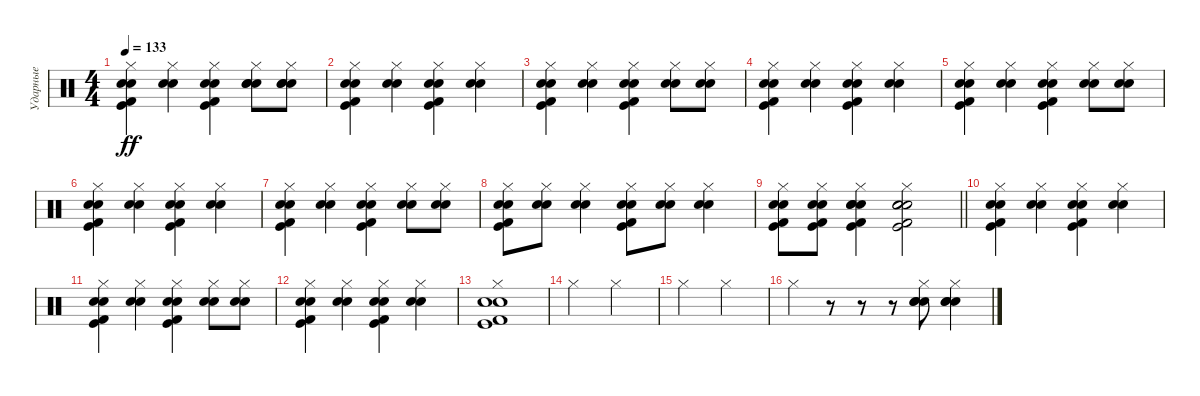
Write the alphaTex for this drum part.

\track ("Ударные" "Ударные") {instrument percussion}
\staff {score}
\articulation defaults
\ts (4 4)
\tempo 133
\clef neutral
\ks c
("Snare (hit) 2" "Kick (hit)" "Kick (hit) 2" "Snare (hit) 2" "Hi-Hat (closed)").4{dy ff} ("Electric Snare (hit)" "Electric Snare (hit)" "Hi-Hat (closed)").4 ("Snare (hit) 2" "Kick (hit)" "Kick (hit) 2" "Snare (hit) 2" "Hi-Hat (closed)").4 ("Snare (hit) 2" "Snare (hit) 2" "Electric Snare (hit)" "Hi-Hat (closed)").8 ("Snare (hit) 2" "Snare (hit) 2" "Electric Snare (hit)" "Hi-Hat (closed)").8 |
("Snare (hit) 2" "Kick (hit)" "Kick (hit) 2" "Snare (hit) 2" "Hi-Hat (closed)").4 ("Electric Snare (hit)" "Electric Snare (hit)" "Hi-Hat (closed)").4 ("Snare (hit) 2" "Kick (hit)" "Kick (hit) 2" "Snare (hit) 2" "Hi-Hat (closed)").4 ("Electric Snare (hit)" "Electric Snare (hit)" "Hi-Hat (closed)").4 |
("Snare (hit) 2" "Kick (hit)" "Kick (hit) 2" "Snare (hit) 2" "Hi-Hat (closed)").4 ("Electric Snare (hit)" "Electric Snare (hit)" "Hi-Hat (closed)").4 ("Snare (hit) 2" "Kick (hit)" "Kick (hit) 2" "Snare (hit) 2" "Hi-Hat (closed)").4 ("Electric Snare (hit)" "Electric Snare (hit)" "Hi-Hat (closed)").8 ("Electric Snare (hit)" "Electric Snare (hit)" "Hi-Hat (closed)").8 |
("Snare (hit) 2" "Kick (hit)" "Kick (hit) 2" "Snare (hit) 2" "Hi-Hat (closed)").4 ("Electric Snare (hit)" "Electric Snare (hit)" "Hi-Hat (closed)").4 ("Snare (hit) 2" "Kick (hit)" "Kick (hit) 2" "Snare (hit) 2" "Hi-Hat (closed)").4 ("Electric Snare (hit)" "Electric Snare (hit)" "Hi-Hat (closed)").4 |
("Snare (hit) 2" "Kick (hit)" "Kick (hit) 2" "Snare (hit) 2" "Hi-Hat (closed)").4 ("Electric Snare (hit)" "Electric Snare (hit)" "Hi-Hat (closed)").4 ("Snare (hit) 2" "Kick (hit)" "Kick (hit) 2" "Snare (hit) 2" "Hi-Hat (closed)").4 ("Electric Snare (hit)" "Electric Snare (hit)" "Hi-Hat (closed)").8 ("Electric Snare (hit)" "Electric Snare (hit)" "Hi-Hat (closed)").8 |
("Snare (hit) 2" "Kick (hit)" "Kick (hit) 2" "Snare (hit) 2" "Hi-Hat (closed)").4 ("Electric Snare (hit)" "Electric Snare (hit)" "Hi-Hat (closed)").4 ("Snare (hit) 2" "Kick (hit)" "Kick (hit) 2" "Snare (hit) 2" "Hi-Hat (closed)").4 ("Electric Snare (hit)" "Electric Snare (hit)" "Hi-Hat (closed)").4 |
("Snare (hit) 2" "Kick (hit)" "Kick (hit) 2" "Snare (hit) 2" "Hi-Hat (closed)").4 ("Electric Snare (hit)" "Electric Snare (hit)" "Hi-Hat (closed)").4 ("Snare (hit) 2" "Kick (hit)" "Kick (hit) 2" "Snare (hit) 2" "Hi-Hat (closed)").4 ("Electric Snare (hit)" "Electric Snare (hit)" "Hi-Hat (closed)").8 ("Electric Snare (hit)" "Electric Snare (hit)" "Hi-Hat (closed)").8 |
("Snare (hit) 2" "Kick (hit)" "Kick (hit) 2" "Snare (hit) 2" "Hi-Hat (closed)").8 ("Electric Snare (hit)" "Electric Snare (hit)" "Hi-Hat (closed)").8 ("Electric Snare (hit)" "Electric Snare (hit)" "Hi-Hat (closed)").4 ("Snare (hit) 2" "Kick (hit)" "Kick (hit) 2" "Snare (hit) 2" "Hi-Hat (closed)").8 ("Electric Snare (hit)" "Electric Snare (hit)" "Hi-Hat (closed)").8 ("Electric Snare (hit)" "Electric Snare (hit)" "Hi-Hat (closed)").4 |
\barLineRight lightlight
("Snare (hit) 2" "Kick (hit)" "Kick (hit) 2" "Snare (hit) 2" "Hi-Hat (closed)").8 ("Snare (hit) 2" "Kick (hit)" "Kick (hit) 2" "Snare (hit) 2" "Hi-Hat (closed)").8 ("Snare (hit) 2" "Kick (hit)" "Kick (hit) 2" "Snare (hit) 2" "Electric Snare (hit)" "Hi-Hat (closed)").4 ("Snare (hit) 2" "Kick (hit)" "Kick (hit) 2" "Snare (hit) 2" "Electric Snare (hit)" "Hi-Hat (closed)").2 |
("Snare (hit) 2" "Kick (hit)" "Kick (hit) 2" "Snare (hit) 2" "Hi-Hat (closed)").4 ("Electric Snare (hit)" "Electric Snare (hit)" "Hi-Hat (closed)").4 ("Snare (hit) 2" "Kick (hit)" "Kick (hit) 2" "Snare (hit) 2" "Hi-Hat (closed)").4 ("Electric Snare (hit)" "Electric Snare (hit)" "Hi-Hat (closed)").4 |
("Snare (hit) 2" "Kick (hit)" "Kick (hit) 2" "Snare (hit) 2" "Hi-Hat (closed)").4 ("Electric Snare (hit)" "Electric Snare (hit)" "Hi-Hat (closed)").4 ("Snare (hit) 2" "Kick (hit)" "Kick (hit) 2" "Snare (hit) 2" "Hi-Hat (closed)").4 ("Electric Snare (hit)" "Electric Snare (hit)" "Hi-Hat (closed)").8 ("Electric Snare (hit)" "Electric Snare (hit)" "Hi-Hat (closed)").8 |
("Snare (hit) 2" "Kick (hit)" "Kick (hit) 2" "Snare (hit) 2" "Hi-Hat (closed)").4 ("Electric Snare (hit)" "Electric Snare (hit)" "Hi-Hat (closed)").4 ("Snare (hit) 2" "Kick (hit)" "Kick (hit) 2" "Snare (hit) 2" "Hi-Hat (closed)").4 ("Electric Snare (hit)" "Electric Snare (hit)" "Hi-Hat (closed)").4 |
("Snare (hit) 2" "Kick (hit)" "Kick (hit) 2" "Snare (hit) 2" "Hi-Hat (closed)").1 |
"Hi-Hat (closed)".2 "Hi-Hat (closed)".2 |
"Hi-Hat (closed)".2 "Hi-Hat (closed)".2 |
"Hi-Hat (closed)".4 r.8 r.8 r.8 ("Snare (hit) 2" "Snare (hit) 2" "Electric Snare (hit)" "Hi-Hat (closed)").8 ("Snare (hit) 2" "Snare (hit) 2" "Electric Snare (hit)" "Hi-Hat (closed)").4
